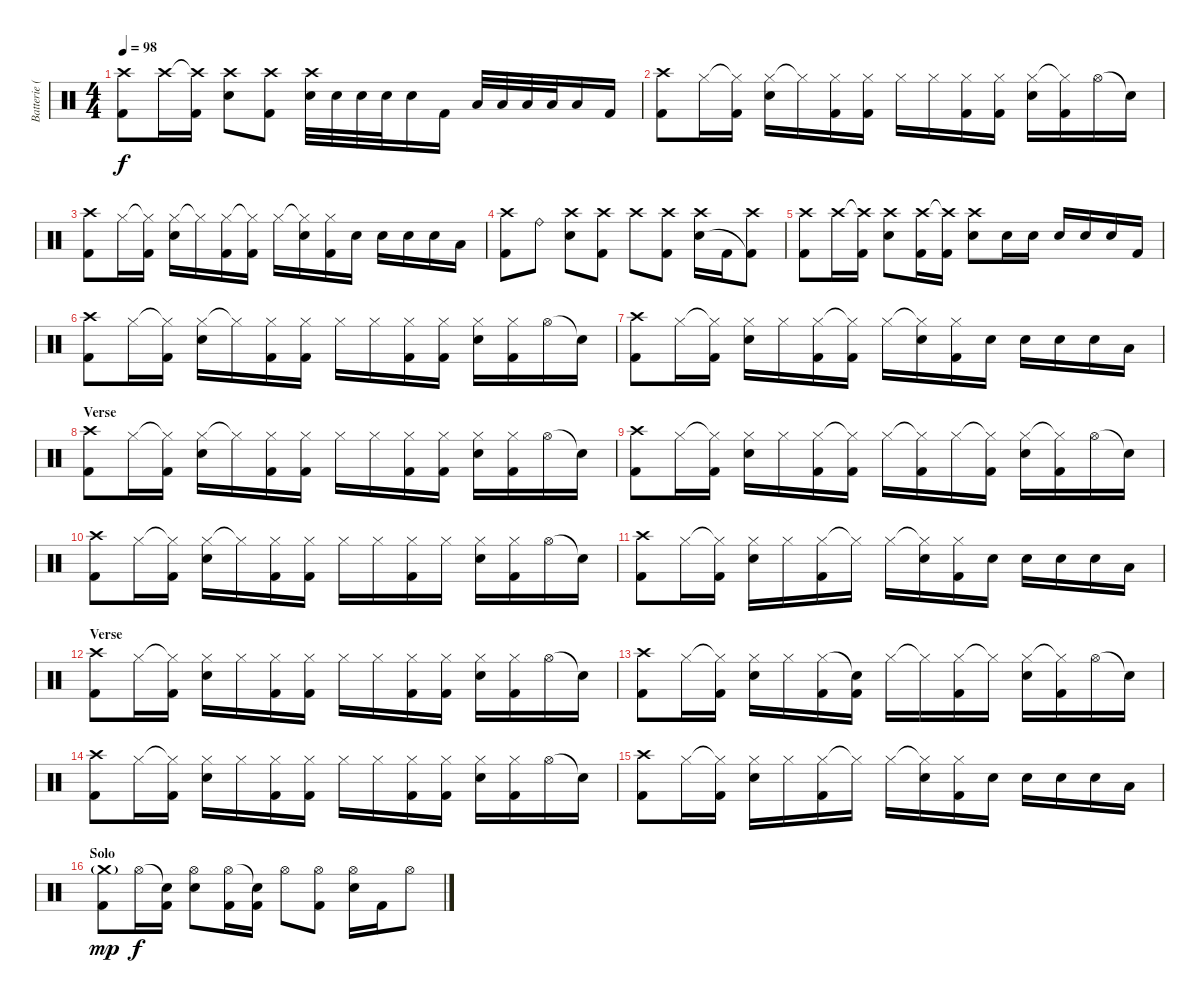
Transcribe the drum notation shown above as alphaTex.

\track ("Batterie (Alfredo Hernandez)" "Batterie (") {instrument percussion}
\staff {score}
\articulation defaults
\ts (4 4)
\tempo 98
\clef neutral
\ks c
("Crash high (hit)" "Kick (hit) 2").8{dy f} "Crash high (hit)".16 ("Crash high (hit)"{t} "Kick (hit) 2").16 ("Crash high (hit)" "Electric Snare (hit)").8 ("Crash high (hit)" "Kick (hit) 2").8 ("Crash high (hit)" "Electric Snare (hit)").32 "Electric Snare (hit)".32 "Electric Snare (hit)".32 "Electric Snare (hit)".32 "Electric Snare (hit)".16 "Kick (hit) 2".16 "Low Floor Tom (hit)".32 "Low Floor Tom (hit)".32 "Low Floor Tom (hit)".32 "Low Floor Tom (hit)".32 "Low Floor Tom (hit)".16 "Kick (hit) 2".16 |
("Crash high (hit)" "Kick (hit) 2").8 "Hi-Hat (closed)".16 ("Hi-Hat (closed)"{t} "Kick (hit) 2").16 ("Hi-Hat (closed)" "Electric Snare (hit)").16 "Hi-Hat (closed)"{t}.16 ("Hi-Hat (closed)" "Kick (hit) 2").16 ("Hi-Hat (closed)" "Kick (hit) 2").16 "Hi-Hat (closed)".16 "Hi-Hat (closed)".16 ("Hi-Hat (closed)" "Kick (hit) 2").16 ("Hi-Hat (closed)" "Kick (hit) 2").16 ("Hi-Hat (closed)" "Electric Snare (hit)").16 ("Hi-Hat (closed)"{t} "Kick (hit) 2").16 "Hi-Hat (open)".16 "Snare (hit)"{t}.16 |
("Crash high (hit)" "Kick (hit) 2").8 "Hi-Hat (closed)".16 ("Hi-Hat (closed)"{t} "Kick (hit) 2").16 ("Hi-Hat (closed)" "Electric Snare (hit)").16 "Hi-Hat (closed)"{t}.16 ("Hi-Hat (closed)" "Kick (hit) 2").16 ("Hi-Hat (closed)"{t} "Kick (hit) 2").16 "Hi-Hat (closed)".16 ("Hi-Hat (closed)"{t} "Electric Snare (hit)").16 ("Hi-Hat (closed)" "Kick (hit) 2").16 "Electric Snare (hit)".16 "Electric Snare (hit)".16 "Electric Snare (hit)".16 "Electric Snare (hit)".16 "Low Floor Tom (hit)".16 |
("Crash high (hit)" "Kick (hit) 2").8 "Ride (bell)".8 ("Crash high (hit)" "Electric Snare (hit)").8 ("Crash high (hit)" "Kick (hit) 2").8 "Crash high (hit)".8 ("Crash high (hit)" "Kick (hit) 2").8 ("Crash high (hit)" "Electric Snare (hit)").16 "Kick (hit) 2".16 ("Crash high (hit)" "Kick (hit) 2"{t}).8 |
("Crash high (hit)" "Kick (hit) 2").8 "Crash high (hit)".16 ("Crash high (hit)"{t} "Kick (hit) 2").16 ("Crash high (hit)" "Electric Snare (hit)").8 ("Crash high (hit)" "Kick (hit) 2").16 ("Crash high (hit)"{t} "Kick (hit) 2").16 ("Crash high (hit)" "Electric Snare (hit)").8 "Electric Snare (hit)".16 "Electric Snare (hit)".16 "Electric Snare (hit)".16 "Electric Snare (hit)".16 "Electric Snare (hit)".16 "Kick (hit) 2".16 |
("Crash high (hit)" "Kick (hit) 2").8 "Hi-Hat (closed)".16 ("Hi-Hat (closed)"{t} "Kick (hit) 2").16 ("Hi-Hat (closed)" "Electric Snare (hit)").16 "Hi-Hat (closed)"{t}.16 ("Hi-Hat (closed)" "Kick (hit) 2").16 ("Hi-Hat (closed)" "Kick (hit) 2").16 "Hi-Hat (closed)".16 "Hi-Hat (closed)".16 ("Hi-Hat (closed)" "Kick (hit) 2").16 ("Hi-Hat (closed)" "Kick (hit) 2").16 ("Hi-Hat (closed)" "Electric Snare (hit)").16 ("Hi-Hat (closed)" "Kick (hit) 2").16 "Hi-Hat (open)".16 "Snare (hit)"{t}.16 |
("Crash high (hit)" "Kick (hit) 2").8 "Hi-Hat (closed)".16 ("Hi-Hat (closed)"{t} "Kick (hit) 2").16 ("Hi-Hat (closed)" "Electric Snare (hit)").16 "Hi-Hat (closed)".16 ("Hi-Hat (closed)" "Kick (hit) 2").16 ("Hi-Hat (closed)"{t} "Kick (hit) 2").16 "Hi-Hat (closed)".16 ("Hi-Hat (closed)"{t} "Electric Snare (hit)").16 ("Hi-Hat (closed)" "Kick (hit) 2").16 "Electric Snare (hit)".16 "Electric Snare (hit)".16 "Electric Snare (hit)".16 "Electric Snare (hit)".16 "Low Floor Tom (hit)".16 |
\section ("" "Verse")
("Crash high (hit)" "Kick (hit) 2").8 "Hi-Hat (closed)".16 ("Hi-Hat (closed)"{t} "Kick (hit) 2").16 ("Hi-Hat (closed)" "Electric Snare (hit)").16 "Hi-Hat (closed)"{t}.16 ("Hi-Hat (closed)" "Kick (hit) 2").16 ("Hi-Hat (closed)" "Kick (hit) 2").16 "Hi-Hat (closed)".16 "Hi-Hat (closed)".16 ("Hi-Hat (closed)" "Kick (hit) 2").16 ("Hi-Hat (closed)" "Kick (hit) 2").16 ("Hi-Hat (closed)" "Electric Snare (hit)").16 ("Hi-Hat (closed)" "Kick (hit) 2").16 "Hi-Hat (open)".16 "Snare (hit)"{t}.16 |
("Crash high (hit)" "Kick (hit) 2").8 "Hi-Hat (closed)".16 ("Hi-Hat (closed)"{t} "Kick (hit) 2").16 ("Hi-Hat (closed)" "Electric Snare (hit)").16 "Hi-Hat (closed)".16 ("Hi-Hat (closed)" "Kick (hit) 2").16 ("Hi-Hat (closed)"{t} "Kick (hit) 2").16 "Hi-Hat (closed)".16 ("Hi-Hat (closed)"{t} "Kick (hit) 2").16 "Hi-Hat (closed)".16 ("Hi-Hat (closed)"{t} "Kick (hit) 2").16 ("Hi-Hat (closed)" "Electric Snare (hit)").16 ("Hi-Hat (closed)"{t} "Kick (hit) 2").16 "Hi-Hat (open)".16 "Snare (hit)"{t}.16 |
("Crash high (hit)" "Kick (hit) 2").8 "Hi-Hat (closed)".16 ("Hi-Hat (closed)"{t} "Kick (hit) 2").16 ("Hi-Hat (closed)" "Electric Snare (hit)").16 "Hi-Hat (closed)"{t}.16 ("Hi-Hat (closed)" "Kick (hit) 2").16 ("Hi-Hat (closed)" "Kick (hit) 2").16 "Hi-Hat (closed)".16 "Hi-Hat (closed)".16 ("Hi-Hat (closed)" "Kick (hit) 2").16 "Hi-Hat (closed)".16 ("Hi-Hat (closed)" "Electric Snare (hit)").16 ("Hi-Hat (closed)" "Kick (hit) 2").16 "Hi-Hat (open)".16 "Snare (hit)"{t}.16 |
("Crash high (hit)" "Kick (hit) 2").8 "Hi-Hat (closed)".16 ("Hi-Hat (closed)"{t} "Kick (hit) 2").16 ("Hi-Hat (closed)" "Electric Snare (hit)").16 "Hi-Hat (closed)".16 ("Hi-Hat (closed)" "Kick (hit) 2").16 "Hi-Hat (closed)"{t}.16 "Hi-Hat (closed)".16 ("Hi-Hat (closed)"{t} "Electric Snare (hit)").16 ("Hi-Hat (closed)" "Kick (hit) 2").16 "Electric Snare (hit)".16 "Electric Snare (hit)".16 "Electric Snare (hit)".16 "Electric Snare (hit)".16 "Low Floor Tom (hit)".16 |
\section ("" "Verse")
("Crash high (hit)" "Kick (hit) 2").8 "Hi-Hat (closed)".16 ("Hi-Hat (closed)"{t} "Kick (hit) 2").16 ("Hi-Hat (closed)" "Electric Snare (hit)").16 "Hi-Hat (closed)".16 ("Hi-Hat (closed)" "Kick (hit) 2").16 ("Hi-Hat (closed)" "Kick (hit) 2").16 "Hi-Hat (closed)".16 "Hi-Hat (closed)".16 ("Hi-Hat (closed)" "Kick (hit) 2").16 ("Hi-Hat (closed)" "Kick (hit) 2").16 ("Hi-Hat (closed)" "Electric Snare (hit)").16 ("Hi-Hat (closed)" "Kick (hit) 2").16 "Hi-Hat (open)".16 "Snare (hit)"{t}.16 |
("Crash high (hit)" "Kick (hit) 2").8 "Hi-Hat (closed)".16 ("Hi-Hat (closed)"{t} "Kick (hit) 2").16 ("Hi-Hat (closed)" "Electric Snare (hit)").16 "Hi-Hat (closed)".16 ("Hi-Hat (closed)" "Kick (hit) 2").16 ("Snare (hit)"{t} "Kick (hit) 2").16 "Hi-Hat (closed)".16 "Hi-Hat (closed)"{t}.16 ("Hi-Hat (closed)" "Kick (hit) 2").16 "Hi-Hat (closed)"{t}.16 ("Hi-Hat (closed)" "Electric Snare (hit)").16 ("Hi-Hat (closed)"{t} "Kick (hit) 2").16 "Hi-Hat (open)".16 "Snare (hit)"{t}.16 |
("Crash high (hit)" "Kick (hit) 2").8 "Hi-Hat (closed)".16 ("Hi-Hat (closed)"{t} "Kick (hit) 2").16 ("Hi-Hat (closed)" "Electric Snare (hit)").16 "Hi-Hat (closed)".16 ("Hi-Hat (closed)" "Kick (hit) 2").16 ("Hi-Hat (closed)" "Kick (hit) 2").16 "Hi-Hat (closed)".16 "Hi-Hat (closed)".16 ("Hi-Hat (closed)" "Kick (hit) 2").16 ("Hi-Hat (closed)" "Kick (hit) 2").16 ("Hi-Hat (closed)" "Electric Snare (hit)").16 ("Hi-Hat (closed)" "Kick (hit) 2").16 "Hi-Hat (open)".16 "Snare (hit)"{t}.16 |
("Crash high (hit)" "Kick (hit) 2").8 "Hi-Hat (closed)".16 ("Hi-Hat (closed)"{t} "Kick (hit) 2").16 ("Hi-Hat (closed)" "Electric Snare (hit)").16 "Hi-Hat (closed)".16 ("Hi-Hat (closed)" "Kick (hit) 2").16 "Hi-Hat (closed)"{t}.16 "Hi-Hat (closed)".16 ("Hi-Hat (closed)"{t} "Electric Snare (hit)").16 ("Hi-Hat (closed)" "Kick (hit) 2").16 "Electric Snare (hit)".16 "Electric Snare (hit)".16 "Electric Snare (hit)".16 "Electric Snare (hit)".16 "Low Floor Tom (hit)".16 |
\section ("" "Solo")
("Crash medium (hit)"{g} "Kick (hit) 2").8{dy mp} "Hi-Hat (open)".16{dy f} ("Snare (hit)"{t} "Kick (hit) 2").16 ("Hi-Hat (open)" "Electric Snare (hit)").8 ("Hi-Hat (open)" "Kick (hit) 2").16 ("Snare (hit)"{t} "Kick (hit) 2").16 "Hi-Hat (open)".8 ("Hi-Hat (open)" "Kick (hit) 2").8 ("Hi-Hat (open)" "Electric Snare (hit)").16 "Kick (hit) 2".16 "Hi-Hat (open)".8
